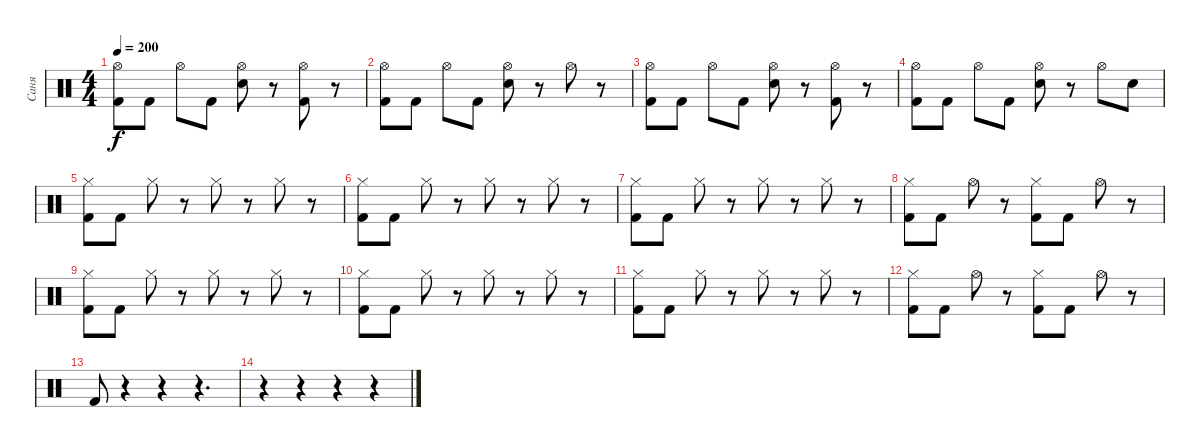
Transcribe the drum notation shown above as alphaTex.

\track ("Саня" "Саня") {instrument percussion}
\staff {score}
\articulation defaults
\ts (4 4)
\tempo 200
\clef neutral
\ks c
("Hi-Hat (open)" "Kick (hit) 2").8{dy f} "Kick (hit) 2".8 "Hi-Hat (open)".8 "Kick (hit) 2".8 ("Hi-Hat (open)" "Electric Snare (hit)").8 r.8 ("Hi-Hat (open)" "Kick (hit) 2").8 r.8 |
("Hi-Hat (open)" "Kick (hit) 2").8 "Kick (hit) 2".8 "Hi-Hat (open)".8 "Kick (hit) 2".8 ("Hi-Hat (open)" "Electric Snare (hit)").8 r.8 "Hi-Hat (open)".8 r.8 |
("Hi-Hat (open)" "Kick (hit) 2").8 "Kick (hit) 2".8 "Hi-Hat (open)".8 "Kick (hit) 2".8 ("Hi-Hat (open)" "Electric Snare (hit)").8 r.8 ("Hi-Hat (open)" "Kick (hit) 2").8 r.8 |
("Hi-Hat (open)" "Kick (hit) 2").8 "Kick (hit) 2".8 "Hi-Hat (open)".8 "Kick (hit) 2".8 ("Hi-Hat (open)" "Electric Snare (hit)").8 r.8 "Hi-Hat (open)".8 "Electric Snare (hit)".8 |
("Hi-Hat (closed)" "Kick (hit) 2").8 "Kick (hit) 2".8 "Hi-Hat (closed)".8 r.8 "Hi-Hat (closed)".8 r.8 "Hi-Hat (closed)".8 r.8 |
("Hi-Hat (closed)" "Kick (hit) 2").8 "Kick (hit) 2".8 "Hi-Hat (closed)".8 r.8 "Hi-Hat (closed)".8 r.8 "Hi-Hat (closed)".8 r.8 |
("Hi-Hat (closed)" "Kick (hit) 2").8 "Kick (hit) 2".8 "Hi-Hat (closed)".8 r.8 "Hi-Hat (closed)".8 r.8 "Hi-Hat (closed)".8 r.8 |
("Hi-Hat (closed)" "Kick (hit) 2").8 "Kick (hit) 2".8 "Hi-Hat (open)".8 r.8 ("Hi-Hat (closed)" "Kick (hit) 2").8 "Kick (hit) 2".8 "Hi-Hat (open)".8 r.8 |
("Hi-Hat (closed)" "Kick (hit) 2").8 "Kick (hit) 2".8 "Hi-Hat (closed)".8 r.8 "Hi-Hat (closed)".8 r.8 "Hi-Hat (closed)".8 r.8 |
("Hi-Hat (closed)" "Kick (hit) 2").8 "Kick (hit) 2".8 "Hi-Hat (closed)".8 r.8 "Hi-Hat (closed)".8 r.8 "Hi-Hat (closed)".8 r.8 |
("Hi-Hat (closed)" "Kick (hit) 2").8 "Kick (hit) 2".8 "Hi-Hat (closed)".8 r.8 "Hi-Hat (closed)".8 r.8 "Hi-Hat (closed)".8 r.8 |
("Hi-Hat (closed)" "Kick (hit) 2").8 "Kick (hit) 2".8 "Hi-Hat (open)".8 r.8 ("Hi-Hat (closed)" "Kick (hit) 2").8 "Kick (hit) 2".8 "Hi-Hat (open)".8 r.8 |
"Kick (hit) 2".8 r.4 r.4 r.4{d} |
r.4 r.4 r.4 r.4
